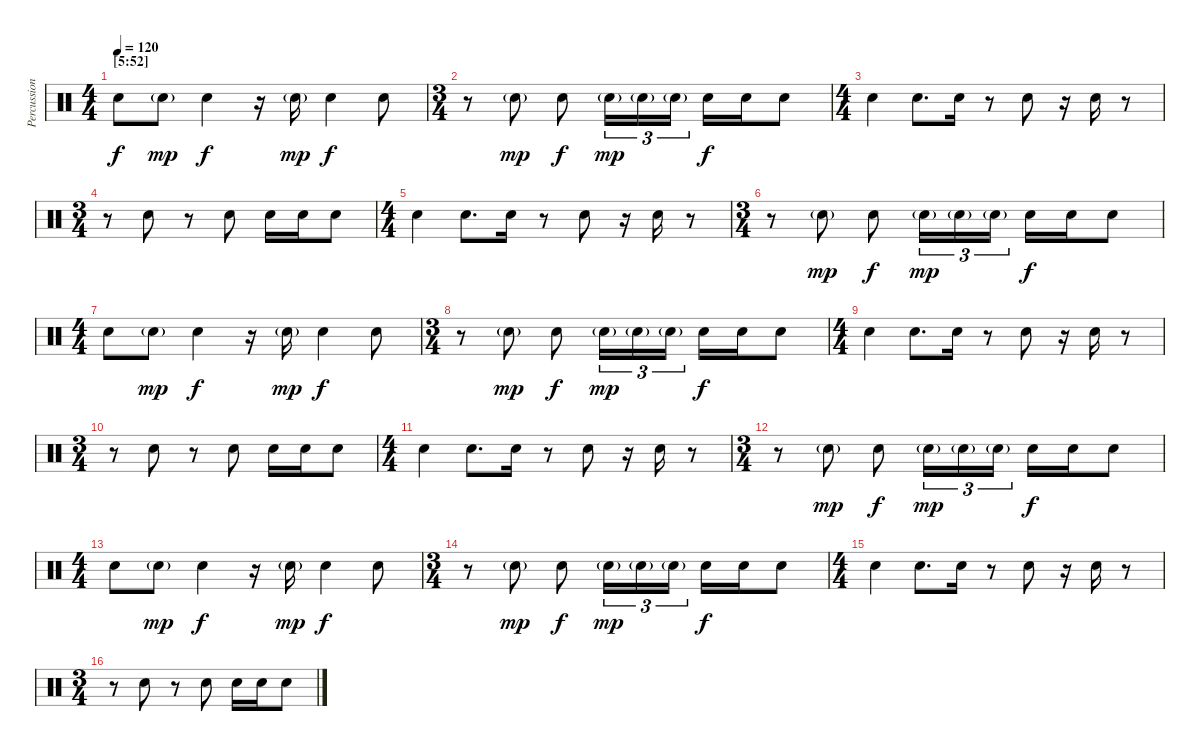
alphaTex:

\track ("Percussion" "Percussion") {instrument percussion}
\staff {score}
\articulation defaults
\ts (4 4)
\section ("" "[5:52]")
\tempo 120
\clef neutral
\ks c "Electric Snare (hit)".8{dy f} "Electric Snare (hit)"{g}.8{dy mp} "Electric Snare (hit)".4{dy f}
r.16 "Electric Snare (hit)"{g}.16{dy mp} "Electric Snare (hit)".4{dy f} "Electric Snare (hit)".8 |
\ts (3 4)
r.8 "Electric Snare (hit)"{g}.8{dy mp} "Electric Snare (hit)".8{dy f} "Electric Snare (hit)"{g}.16{tu (3 2) dy mp} "Electric Snare (hit)"{g}.16{tu (3 2)} "Electric Snare (hit)"{g}.16{tu (3 2)} "Electric Snare (hit)".16{dy f} "Electric Snare (hit)".16 "Electric Snare (hit)".8 |
\ts (4 4)
"Electric Snare (hit)".4 "Electric Snare (hit)".8{d} "Electric Snare (hit)".16 r.8 "Electric Snare (hit)".8 r.16 "Electric Snare (hit)".16 r.8 |
\ts (3 4)
r.8 "Electric Snare (hit)".8 r.8 "Electric Snare (hit)".8 "Electric Snare (hit)".16 "Electric Snare (hit)".16 "Electric Snare (hit)".8 |
\ts (4 4)
"Electric Snare (hit)".4 "Electric Snare (hit)".8{d} "Electric Snare (hit)".16 r.8 "Electric Snare (hit)".8 r.16 "Electric Snare (hit)".16 r.8 |
\ts (3 4)
r.8 "Electric Snare (hit)"{g}.8{dy mp} "Electric Snare (hit)".8{dy f} "Electric Snare (hit)"{g}.16{tu (3 2) dy mp} "Electric Snare (hit)"{g}.16{tu (3 2)} "Electric Snare (hit)"{g}.16{tu (3 2)} "Electric Snare (hit)".16{dy f} "Electric Snare (hit)".16 "Electric Snare (hit)".8 |
\ts (4 4)
"Electric Snare (hit)".8 "Electric Snare (hit)"{g}.8{dy mp} "Electric Snare (hit)".4{dy f} r.16 "Electric Snare (hit)"{g}.16{dy mp} "Electric Snare (hit)".4{dy f} "Electric Snare (hit)".8 |
\ts (3 4)
r.8 "Electric Snare (hit)"{g}.8{dy mp} "Electric Snare (hit)".8{dy f} "Electric Snare (hit)"{g}.16{tu (3 2) dy mp} "Electric Snare (hit)"{g}.16{tu (3 2)} "Electric Snare (hit)"{g}.16{tu (3 2)} "Electric Snare (hit)".16{dy f} "Electric Snare (hit)".16 "Electric Snare (hit)".8 |
\ts (4 4)
"Electric Snare (hit)".4 "Electric Snare (hit)".8{d} "Electric Snare (hit)".16 r.8 "Electric Snare (hit)".8 r.16 "Electric Snare (hit)".16 r.8 |
\ts (3 4)
r.8 "Electric Snare (hit)".8 r.8 "Electric Snare (hit)".8 "Electric Snare (hit)".16 "Electric Snare (hit)".16 "Electric Snare (hit)".8 |
\ts (4 4)
"Electric Snare (hit)".4 "Electric Snare (hit)".8{d} "Electric Snare (hit)".16 r.8 "Electric Snare (hit)".8 r.16 "Electric Snare (hit)".16 r.8 |
\ts (3 4)
r.8 "Electric Snare (hit)"{g}.8{dy mp} "Electric Snare (hit)".8{dy f} "Electric Snare (hit)"{g}.16{tu (3 2) dy mp} "Electric Snare (hit)"{g}.16{tu (3 2)} "Electric Snare (hit)"{g}.16{tu (3 2)} "Electric Snare (hit)".16{dy f} "Electric Snare (hit)".16 "Electric Snare (hit)".8 |
\ts (4 4)
"Electric Snare (hit)".8 "Electric Snare (hit)"{g}.8{dy mp} "Electric Snare (hit)".4{dy f} r.16 "Electric Snare (hit)"{g}.16{dy mp} "Electric Snare (hit)".4{dy f} "Electric Snare (hit)".8 |
\ts (3 4)
r.8 "Electric Snare (hit)"{g}.8{dy mp} "Electric Snare (hit)".8{dy f} "Electric Snare (hit)"{g}.16{tu (3 2) dy mp} "Electric Snare (hit)"{g}.16{tu (3 2)} "Electric Snare (hit)"{g}.16{tu (3 2)} "Electric Snare (hit)".16{dy f} "Electric Snare (hit)".16 "Electric Snare (hit)".8 |
\ts (4 4)
"Electric Snare (hit)".4 "Electric Snare (hit)".8{d} "Electric Snare (hit)".16 r.8 "Electric Snare (hit)".8 r.16 "Electric Snare (hit)".16 r.8 |
\ts (3 4)
r.8 "Electric Snare (hit)".8 r.8 "Electric Snare (hit)".8 "Electric Snare (hit)".16 "Electric Snare (hit)".16 "Electric Snare (hit)".8
